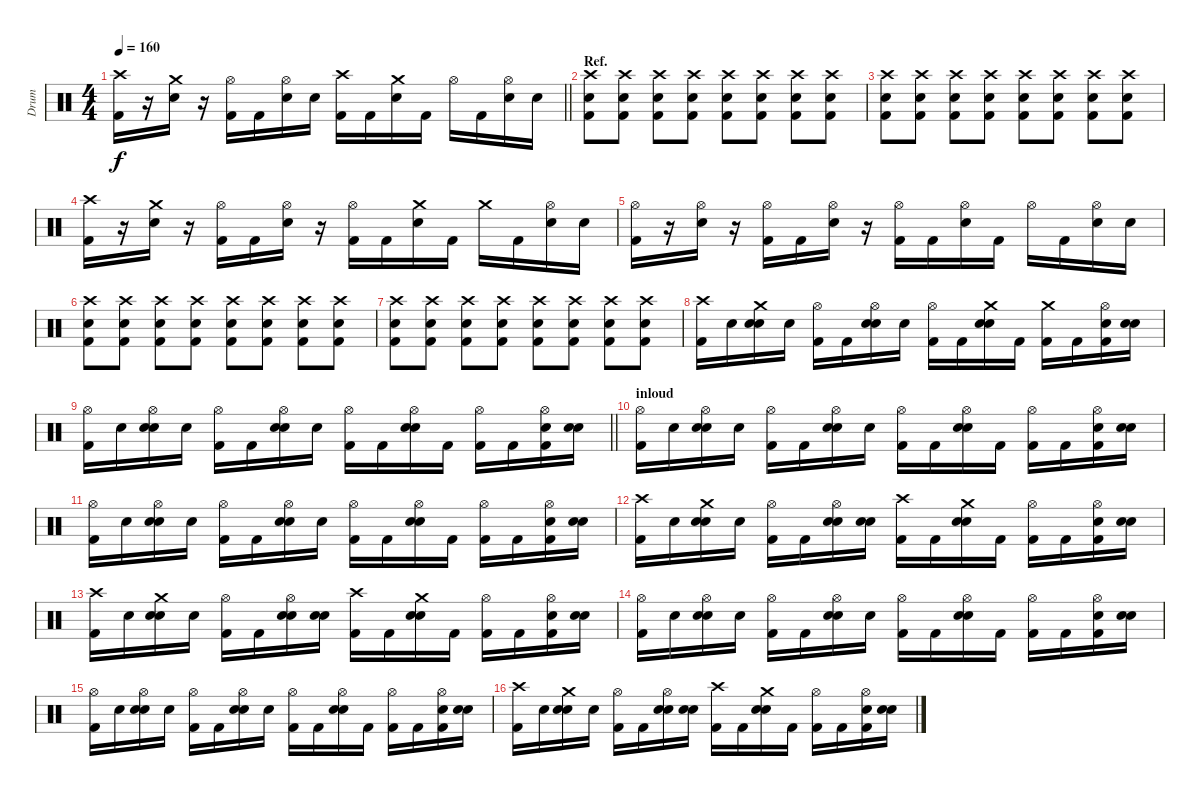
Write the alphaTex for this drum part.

\track ("Drum" "Drum") {instrument percussion}
\staff {score}
\articulation defaults
\ts (4 4)
\tempo 160
\clef neutral
\barLineRight lightlight
\ks c
("Crash high (hit)" "Kick (hit) 2").16{dy f} r.16 ("Crash medium (hit)" "Electric Snare (hit)").16 r.16 ("Hi-Hat (open)" "Kick (hit) 2").16 "Kick (hit) 2".16 ("Hi-Hat (open)" "Electric Snare (hit)").16 "Electric Snare (hit)".16 ("Crash high (hit)" "Kick (hit) 2").16 "Kick (hit) 2".16 ("Crash medium (hit)" "Electric Snare (hit)").16 "Kick (hit) 2".16 "Hi-Hat (open)".16 "Kick (hit) 2".16 ("Hi-Hat (open)" "Electric Snare (hit)").16 "Electric Snare (hit)".16 |
\section ("" "Ref.")
("Crash high (hit)" "Electric Snare (hit)" "Kick (hit) 2").8 ("Crash high (hit)" "Electric Snare (hit)" "Kick (hit) 2").8 ("Crash high (hit)" "Electric Snare (hit)" "Kick (hit) 2").8 ("Crash high (hit)" "Electric Snare (hit)" "Kick (hit) 2").8 ("Crash high (hit)" "Electric Snare (hit)" "Kick (hit) 2").8 ("Crash high (hit)" "Electric Snare (hit)" "Kick (hit) 2").8 ("Crash high (hit)" "Electric Snare (hit)" "Kick (hit) 2").8 ("Crash high (hit)" "Electric Snare (hit)" "Kick (hit) 2").8 |
("Crash high (hit)" "Electric Snare (hit)" "Kick (hit) 2").8 ("Crash high (hit)" "Electric Snare (hit)" "Kick (hit) 2").8 ("Crash high (hit)" "Electric Snare (hit)" "Kick (hit) 2").8 ("Crash high (hit)" "Electric Snare (hit)" "Kick (hit) 2").8 ("Crash high (hit)" "Electric Snare (hit)" "Kick (hit) 2").8 ("Crash high (hit)" "Electric Snare (hit)" "Kick (hit) 2").8 ("Crash high (hit)" "Electric Snare (hit)" "Kick (hit) 2").8 ("Crash high (hit)" "Electric Snare (hit)" "Kick (hit) 2").8 |
("Crash high (hit)" "Kick (hit) 2").16 r.16 ("Crash medium (hit)" "Electric Snare (hit)").16 r.16 ("Hi-Hat (open)" "Kick (hit) 2").16 "Kick (hit) 2".16 ("Hi-Hat (open)" "Electric Snare (hit)").16 r.16 ("Hi-Hat (open)" "Kick (hit) 2").16 "Kick (hit) 2".16 ("Crash medium (hit)" "Electric Snare (hit)").16 "Kick (hit) 2".16 "Crash medium (hit)".16 "Kick (hit) 2".16 ("Hi-Hat (open)" "Electric Snare (hit)").16 "Electric Snare (hit)".16 |
("Hi-Hat (open)" "Kick (hit) 2").16 r.16 ("Hi-Hat (open)" "Electric Snare (hit)").16 r.16 ("Hi-Hat (open)" "Kick (hit) 2").16 "Kick (hit) 2".16 ("Hi-Hat (open)" "Electric Snare (hit)").16 r.16 ("Hi-Hat (open)" "Kick (hit) 2").16 "Kick (hit) 2".16 ("Hi-Hat (open)" "Electric Snare (hit)").16 "Kick (hit) 2".16 "Hi-Hat (open)".16 "Kick (hit) 2".16 ("Hi-Hat (open)" "Electric Snare (hit)").16 "Electric Snare (hit)".16 |
("Crash high (hit)" "Electric Snare (hit)" "Kick (hit) 2").8 ("Crash high (hit)" "Electric Snare (hit)" "Kick (hit) 2").8 ("Crash high (hit)" "Electric Snare (hit)" "Kick (hit) 2").8 ("Crash high (hit)" "Electric Snare (hit)" "Kick (hit) 2").8 ("Crash high (hit)" "Electric Snare (hit)" "Kick (hit) 2").8 ("Crash high (hit)" "Electric Snare (hit)" "Kick (hit) 2").8 ("Crash high (hit)" "Electric Snare (hit)" "Kick (hit) 2").8 ("Crash high (hit)" "Electric Snare (hit)" "Kick (hit) 2").8 |
("Crash high (hit)" "Electric Snare (hit)" "Kick (hit) 2").8 ("Crash high (hit)" "Electric Snare (hit)" "Kick (hit) 2").8 ("Crash high (hit)" "Electric Snare (hit)" "Kick (hit) 2").8 ("Crash high (hit)" "Electric Snare (hit)" "Kick (hit) 2").8 ("Crash high (hit)" "Electric Snare (hit)" "Kick (hit) 2").8 ("Crash high (hit)" "Electric Snare (hit)" "Kick (hit) 2").8 ("Crash high (hit)" "Electric Snare (hit)" "Kick (hit) 2").8 ("Crash high (hit)" "Electric Snare (hit)" "Kick (hit) 2").8 |
("Crash high (hit)" "Kick (hit) 2").16 "Snare (hit)"{x}.16 ("Crash medium (hit)" "Electric Snare (hit)" "Snare (hit)"{x}).16 "Snare (hit)"{x}.16 ("Hi-Hat (open)" "Kick (hit) 2").16 "Kick (hit) 2".16 ("Hi-Hat (open)" "Electric Snare (hit)" "Snare (hit)"{x}).16 "Snare (hit)"{x}.16 ("Hi-Hat (open)" "Kick (hit) 2").16 "Kick (hit) 2".16 ("Crash medium (hit)" "Electric Snare (hit)" "Snare (hit)"{x}).16 "Kick (hit) 2".16 ("Crash medium (hit)" "Kick (hit) 2"{x}).16 "Kick (hit) 2".16 ("Hi-Hat (open)" "Electric Snare (hit)" "Kick (hit) 2"{x}).16 ("Electric Snare (hit)" "Snare (hit)"{x}).16 |
\barLineRight lightlight
("Hi-Hat (open)" "Kick (hit) 2").16 "Snare (hit)"{x}.16 ("Hi-Hat (open)" "Electric Snare (hit)" "Snare (hit)"{x}).16 "Snare (hit)"{x}.16 ("Hi-Hat (open)" "Kick (hit) 2").16 "Kick (hit) 2".16 ("Hi-Hat (open)" "Electric Snare (hit)" "Snare (hit)"{x}).16 "Snare (hit)"{x}.16 ("Hi-Hat (open)" "Kick (hit) 2").16 "Kick (hit) 2".16 ("Hi-Hat (open)" "Electric Snare (hit)" "Snare (hit)"{x}).16 "Kick (hit) 2".16 ("Hi-Hat (open)" "Kick (hit) 2"{x}).16 "Kick (hit) 2".16 ("Hi-Hat (open)" "Electric Snare (hit)" "Kick (hit) 2"{x}).16 ("Electric Snare (hit)" "Snare (hit)"{x}).16 |
\section ("" "inloud")
("Hi-Hat (open)" "Kick (hit) 2").16 "Snare (hit)"{x}.16 ("Hi-Hat (open)" "Electric Snare (hit)" "Snare (hit)"{x}).16 "Snare (hit)"{x}.16 ("Hi-Hat (open)" "Kick (hit) 2").16 "Kick (hit) 2".16 ("Hi-Hat (open)" "Electric Snare (hit)" "Snare (hit)"{x}).16 "Snare (hit)"{x}.16 ("Hi-Hat (open)" "Kick (hit) 2").16 "Kick (hit) 2".16 ("Hi-Hat (open)" "Electric Snare (hit)" "Snare (hit)"{x}).16 "Kick (hit) 2".16 ("Hi-Hat (open)" "Kick (hit) 2"{x}).16 "Kick (hit) 2".16 ("Hi-Hat (open)" "Electric Snare (hit)" "Kick (hit) 2"{x}).16 ("Electric Snare (hit)" "Snare (hit)"{x}).16 |
("Hi-Hat (open)" "Kick (hit) 2").16 "Snare (hit)"{x}.16 ("Hi-Hat (open)" "Electric Snare (hit)" "Snare (hit)"{x}).16 "Snare (hit)"{x}.16 ("Hi-Hat (open)" "Kick (hit) 2").16 "Kick (hit) 2".16 ("Hi-Hat (open)" "Electric Snare (hit)" "Snare (hit)"{x}).16 "Snare (hit)"{x}.16 ("Hi-Hat (open)" "Kick (hit) 2").16 "Kick (hit) 2".16 ("Hi-Hat (open)" "Electric Snare (hit)" "Snare (hit)"{x}).16 "Kick (hit) 2".16 ("Hi-Hat (open)" "Kick (hit) 2"{x}).16 "Kick (hit) 2".16 ("Hi-Hat (open)" "Electric Snare (hit)" "Kick (hit) 2"{x}).16 ("Electric Snare (hit)" "Snare (hit)"{x}).16 |
("Crash high (hit)" "Kick (hit) 2").16 "Snare (hit)"{x}.16 ("Crash medium (hit)" "Electric Snare (hit)" "Snare (hit)"{x}).16 "Snare (hit)"{x}.16 ("Hi-Hat (open)" "Kick (hit) 2").16 "Kick (hit) 2"{x}.16 ("Hi-Hat (open)" "Electric Snare (hit)" "Snare (hit)"{x}).16 ("Electric Snare (hit)" "Snare (hit)"{x}).16 ("Crash high (hit)" "Kick (hit) 2").16 "Kick (hit) 2"{x}.16 ("Crash medium (hit)" "Electric Snare (hit)" "Snare (hit)"{x}).16 "Kick (hit) 2"{x}.16 ("Hi-Hat (open)" "Kick (hit) 2").16 "Kick (hit) 2"{x}.16 ("Hi-Hat (open)" "Electric Snare (hit)" "Kick (hit) 2"{x}).16 ("Electric Snare (hit)" "Snare (hit)"{x}).16 |
("Crash high (hit)" "Kick (hit) 2").16 "Snare (hit)"{x}.16 ("Crash medium (hit)" "Electric Snare (hit)" "Snare (hit)"{x}).16 "Snare (hit)"{x}.16 ("Hi-Hat (open)" "Kick (hit) 2").16 "Kick (hit) 2".16 ("Hi-Hat (open)" "Electric Snare (hit)" "Snare (hit)"{x}).16 ("Electric Snare (hit)" "Snare (hit)"{x}).16 ("Crash high (hit)" "Kick (hit) 2").16 "Kick (hit) 2".16 ("Crash medium (hit)" "Electric Snare (hit)" "Snare (hit)"{x}).16 "Kick (hit) 2".16 ("Hi-Hat (open)" "Kick (hit) 2"{x}).16 "Kick (hit) 2".16 ("Hi-Hat (open)" "Electric Snare (hit)" "Kick (hit) 2"{x}).16 ("Electric Snare (hit)" "Snare (hit)"{x}).16 |
("Hi-Hat (open)" "Kick (hit) 2").16 "Snare (hit)"{x}.16 ("Hi-Hat (open)" "Electric Snare (hit)" "Snare (hit)"{x}).16 "Snare (hit)"{x}.16 ("Hi-Hat (open)" "Kick (hit) 2").16 "Kick (hit) 2".16 ("Hi-Hat (open)" "Electric Snare (hit)" "Snare (hit)"{x}).16 "Snare (hit)"{x}.16 ("Hi-Hat (open)" "Kick (hit) 2").16 "Kick (hit) 2".16 ("Hi-Hat (open)" "Electric Snare (hit)" "Snare (hit)"{x}).16 "Kick (hit) 2".16 ("Hi-Hat (open)" "Kick (hit) 2"{x}).16 "Kick (hit) 2".16 ("Hi-Hat (open)" "Electric Snare (hit)" "Kick (hit) 2"{x}).16 ("Electric Snare (hit)" "Snare (hit)"{x}).16 |
("Hi-Hat (open)" "Kick (hit) 2").16 "Snare (hit)"{x}.16 ("Hi-Hat (open)" "Electric Snare (hit)" "Snare (hit)"{x}).16 "Snare (hit)"{x}.16 ("Hi-Hat (open)" "Kick (hit) 2").16 "Kick (hit) 2".16 ("Hi-Hat (open)" "Electric Snare (hit)" "Snare (hit)"{x}).16 "Snare (hit)"{x}.16 ("Hi-Hat (open)" "Kick (hit) 2").16 "Kick (hit) 2".16 ("Hi-Hat (open)" "Electric Snare (hit)" "Snare (hit)"{x}).16 "Kick (hit) 2".16 ("Hi-Hat (open)" "Kick (hit) 2"{x}).16 "Kick (hit) 2".16 ("Hi-Hat (open)" "Electric Snare (hit)" "Kick (hit) 2"{x}).16 ("Electric Snare (hit)" "Snare (hit)"{x}).16 |
("Crash high (hit)" "Kick (hit) 2").16 "Snare (hit)"{x}.16 ("Crash medium (hit)" "Electric Snare (hit)" "Snare (hit)"{x}).16 "Snare (hit)"{x}.16 ("Hi-Hat (open)" "Kick (hit) 2").16 "Kick (hit) 2"{x}.16 ("Hi-Hat (open)" "Electric Snare (hit)" "Snare (hit)"{x}).16 ("Electric Snare (hit)" "Snare (hit)"{x}).16 ("Crash high (hit)" "Kick (hit) 2").16 "Kick (hit) 2"{x}.16 ("Crash medium (hit)" "Electric Snare (hit)" "Snare (hit)"{x}).16 "Kick (hit) 2"{x}.16 ("Hi-Hat (open)" "Kick (hit) 2").16 "Kick (hit) 2"{x}.16 ("Hi-Hat (open)" "Electric Snare (hit)" "Kick (hit) 2"{x}).16 ("Electric Snare (hit)" "Snare (hit)"{x}).16
